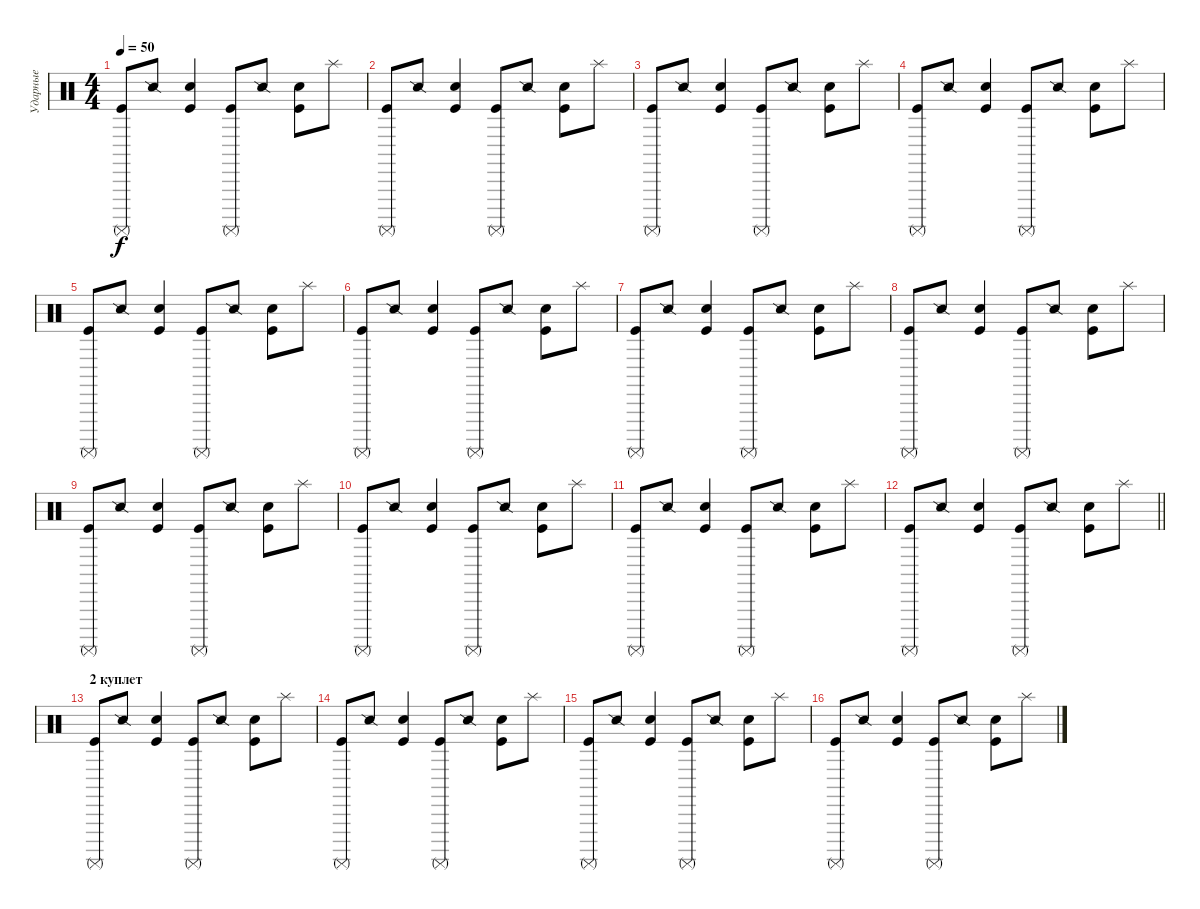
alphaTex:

\track ("Ударные" "Ударные") {instrument percussion}
\staff {score}
\articulation defaults
\ts (4 4)
\tempo 50
\clef neutral
\ks c
("Kick (hit)" "Surdo (mute)").8{dy f} "Snare (side stick) 2".8 ("Snare (hit) 2" "Kick (hit)").4 ("Kick (hit)" "Surdo (mute)").8 "Snare (side stick) 2".8 ("Snare (hit) 2" "Kick (hit)").8 "Splash (hit)".8 |
("Kick (hit)" "Surdo (mute)").8 "Snare (side stick) 2".8 ("Snare (hit) 2" "Kick (hit)").4 ("Kick (hit)" "Surdo (mute)").8 "Snare (side stick) 2".8 ("Snare (hit) 2" "Kick (hit)").8 "Splash (hit)".8 |
("Kick (hit)" "Surdo (mute)").8 "Snare (side stick) 2".8 ("Snare (hit) 2" "Kick (hit)").4 ("Kick (hit)" "Surdo (mute)").8 "Snare (side stick) 2".8 ("Snare (hit) 2" "Kick (hit)").8 "Splash (hit)".8 |
("Kick (hit)" "Surdo (mute)").8 "Snare (side stick) 2".8 ("Snare (hit) 2" "Kick (hit)").4 ("Kick (hit)" "Surdo (mute)").8 "Snare (side stick) 2".8 ("Snare (hit) 2" "Kick (hit)").8 "Splash (hit)".8 |
("Kick (hit)" "Surdo (mute)").8 "Snare (side stick) 2".8 ("Snare (hit) 2" "Kick (hit)").4 ("Kick (hit)" "Surdo (mute)").8 "Snare (side stick) 2".8 ("Snare (hit) 2" "Kick (hit)").8 "Splash (hit)".8 |
("Kick (hit)" "Surdo (mute)").8 "Snare (side stick) 2".8 ("Snare (hit) 2" "Kick (hit)").4 ("Kick (hit)" "Surdo (mute)").8 "Snare (side stick) 2".8 ("Snare (hit) 2" "Kick (hit)").8 "Splash (hit)".8 |
("Kick (hit)" "Surdo (mute)").8 "Snare (side stick) 2".8 ("Snare (hit) 2" "Kick (hit)").4 ("Kick (hit)" "Surdo (mute)").8 "Snare (side stick) 2".8 ("Snare (hit) 2" "Kick (hit)").8 "Splash (hit)".8 |
("Kick (hit)" "Surdo (mute)").8 "Snare (side stick) 2".8 ("Snare (hit) 2" "Kick (hit)").4 ("Kick (hit)" "Surdo (mute)").8 "Snare (side stick) 2".8 ("Snare (hit) 2" "Kick (hit)").8 "Splash (hit)".8 |
("Kick (hit)" "Surdo (mute)").8 "Snare (side stick) 2".8 ("Snare (hit) 2" "Kick (hit)").4 ("Kick (hit)" "Surdo (mute)").8 "Snare (side stick) 2".8 ("Snare (hit) 2" "Kick (hit)").8 "Splash (hit)".8 |
("Kick (hit)" "Surdo (mute)").8 "Snare (side stick) 2".8 ("Snare (hit) 2" "Kick (hit)").4 ("Kick (hit)" "Surdo (mute)").8 "Snare (side stick) 2".8 ("Snare (hit) 2" "Kick (hit)").8 "Splash (hit)".8 |
("Kick (hit)" "Surdo (mute)").8 "Snare (side stick) 2".8 ("Snare (hit) 2" "Kick (hit)").4 ("Kick (hit)" "Surdo (mute)").8 "Snare (side stick) 2".8 ("Snare (hit) 2" "Kick (hit)").8 "Splash (hit)".8 |
\barLineRight lightlight
("Kick (hit)" "Surdo (mute)").8 "Snare (side stick) 2".8 ("Snare (hit) 2" "Kick (hit)").4 ("Kick (hit)" "Surdo (mute)").8 "Snare (side stick) 2".8 ("Snare (hit) 2" "Kick (hit)").8 "Splash (hit)".8 |
\section ("" "2 куплет")
("Kick (hit)" "Surdo (mute)").8 "Snare (side stick) 2".8 ("Snare (hit) 2" "Kick (hit)").4 ("Kick (hit)" "Surdo (mute)").8 "Snare (side stick) 2".8 ("Snare (hit) 2" "Kick (hit)").8 "Splash (hit)".8 |
("Kick (hit)" "Surdo (mute)").8 "Snare (side stick) 2".8 ("Snare (hit) 2" "Kick (hit)").4 ("Kick (hit)" "Surdo (mute)").8 "Snare (side stick) 2".8 ("Snare (hit) 2" "Kick (hit)").8 "Splash (hit)".8 |
("Kick (hit)" "Surdo (mute)").8 "Snare (side stick) 2".8 ("Snare (hit) 2" "Kick (hit)").4 ("Kick (hit)" "Surdo (mute)").8 "Snare (side stick) 2".8 ("Snare (hit) 2" "Kick (hit)").8 "Splash (hit)".8 |
("Kick (hit)" "Surdo (mute)").8 "Snare (side stick) 2".8 ("Snare (hit) 2" "Kick (hit)").4 ("Kick (hit)" "Surdo (mute)").8 "Snare (side stick) 2".8 ("Snare (hit) 2" "Kick (hit)").8 "Splash (hit)".8
